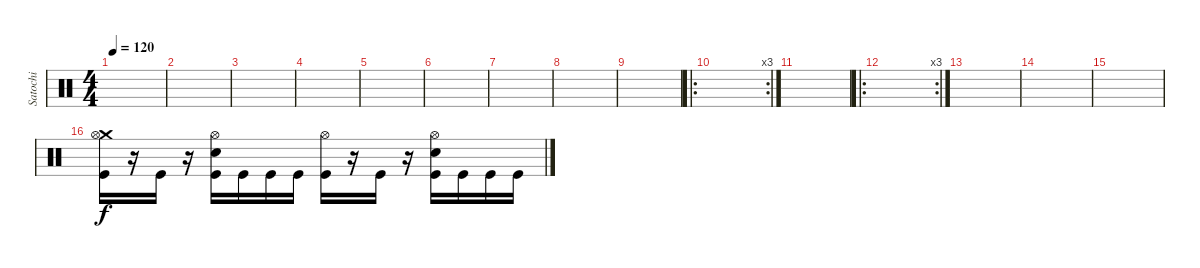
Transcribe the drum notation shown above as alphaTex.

\track ("Satochi" "Satochi") {instrument percussion}
\staff {score}
\articulation defaults
\ts (4 4)
\tempo 120
\clef neutral
\ks c
|
|
|
|
|
|
|
|
|
\ro
\rc 3
|
|
\ro
\rc 3
|
|
|
|
("Crash medium (hit)" "Hi-Hat (open)" "Kick (hit)").16 r.16 "Kick (hit)".16 r.16 ("Hi-Hat (open)" "Electric Snare (hit)" "Kick (hit)").16 "Kick (hit)".16 "Kick (hit)".16 "Kick (hit)".16 ("Hi-Hat (open)" "Kick (hit)").16 r.16 "Kick (hit)".16 r.16 ("Hi-Hat (open)" "Electric Snare (hit)" "Kick (hit)").16 "Kick (hit)".16 "Kick (hit)".16 "Kick (hit)".16
